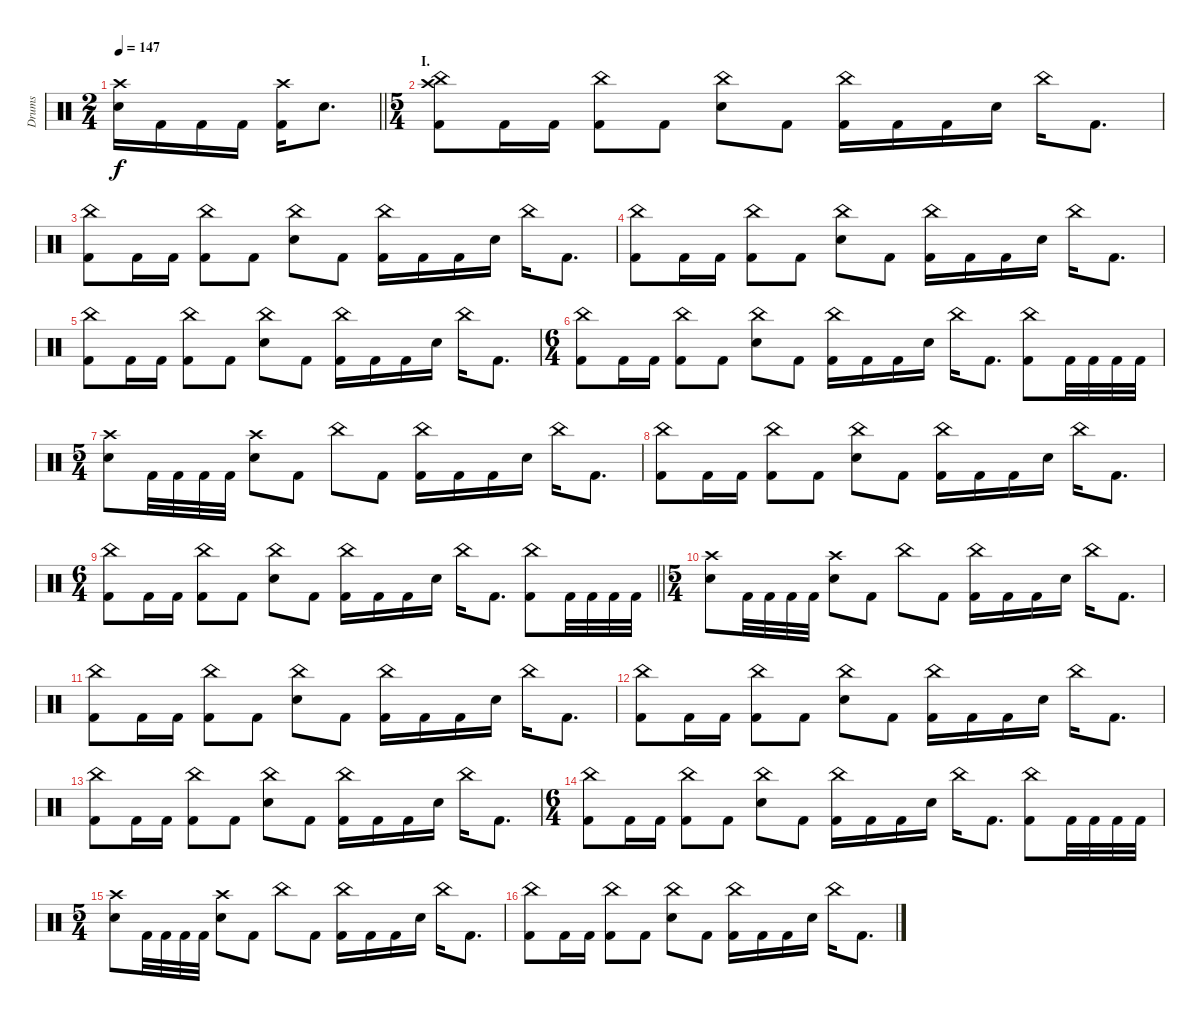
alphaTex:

\track ("Drums" "Drums") {instrument percussion}
\staff {score}
\articulation defaults
\ts (2 4)
\tempo 147
\clef neutral
\barLineRight lightlight
\ks c
("Crash high (hit)" "Electric Snare (hit)").16{dy f} "Kick (hit) 2".16 "Kick (hit) 2".16 "Kick (hit) 2".16 ("Crash high (hit)" "Kick (hit) 2").16 "Electric Snare (hit)".8{d} |
\ts (5 4)
\section ("" "I.")
("China (hit)" "Crash high (hit)" "Kick (hit) 2").8 "Kick (hit) 2".16 "Kick (hit) 2".16 ("China (hit)" "Kick (hit) 2").8 "Kick (hit) 2".8 ("China (hit)" "Electric Snare (hit)").8 "Kick (hit) 2".8 ("China (hit)" "Kick (hit) 2").16 "Kick (hit) 2".16 "Kick (hit) 2".16 "Electric Snare (hit)".16 "China (hit)".16 "Kick (hit) 2".8{d} |
("China (hit)" "Kick (hit) 2").8 "Kick (hit) 2".16 "Kick (hit) 2".16 ("China (hit)" "Kick (hit) 2").8 "Kick (hit) 2".8 ("China (hit)" "Electric Snare (hit)").8 "Kick (hit) 2".8 ("China (hit)" "Kick (hit) 2").16 "Kick (hit) 2".16 "Kick (hit) 2".16 "Electric Snare (hit)".16 "China (hit)".16 "Kick (hit) 2".8{d} |
("China (hit)" "Kick (hit) 2").8 "Kick (hit) 2".16 "Kick (hit) 2".16 ("China (hit)" "Kick (hit) 2").8 "Kick (hit) 2".8 ("China (hit)" "Electric Snare (hit)").8 "Kick (hit) 2".8 ("China (hit)" "Kick (hit) 2").16 "Kick (hit) 2".16 "Kick (hit) 2".16 "Electric Snare (hit)".16 "China (hit)".16 "Kick (hit) 2".8{d} |
("China (hit)" "Kick (hit) 2").8 "Kick (hit) 2".16 "Kick (hit) 2".16 ("China (hit)" "Kick (hit) 2").8 "Kick (hit) 2".8 ("China (hit)" "Electric Snare (hit)").8 "Kick (hit) 2".8 ("China (hit)" "Kick (hit) 2").16 "Kick (hit) 2".16 "Kick (hit) 2".16 "Electric Snare (hit)".16 "China (hit)".16 "Kick (hit) 2".8{d} |
\ts (6 4)
("China (hit)" "Kick (hit) 2").8 "Kick (hit) 2".16 "Kick (hit) 2".16 ("China (hit)" "Kick (hit) 2").8 "Kick (hit) 2".8 ("China (hit)" "Electric Snare (hit)").8 "Kick (hit) 2".8 ("China (hit)" "Kick (hit) 2").16 "Kick (hit) 2".16 "Kick (hit) 2".16 "Electric Snare (hit)".16 "China (hit)".16 "Kick (hit) 2".8{d} ("China (hit)" "Kick (hit) 2").8 "Kick (hit) 2".32 "Kick (hit) 2".32 "Kick (hit) 2".32 "Kick (hit) 2".32 |
\ts (5 4)
("Crash high (hit)" "Electric Snare (hit)").8 "Kick (hit) 2".32 "Kick (hit) 2".32 "Kick (hit) 2".32 "Kick (hit) 2".32 ("Crash high (hit)" "Electric Snare (hit)").8 "Kick (hit) 2".8 "China (hit)".8 "Kick (hit) 2".8 ("China (hit)" "Kick (hit) 2").16 "Kick (hit) 2".16 "Kick (hit) 2".16 "Electric Snare (hit)".16 "China (hit)".16 "Kick (hit) 2".8{d} |
("China (hit)" "Kick (hit) 2").8 "Kick (hit) 2".16 "Kick (hit) 2".16 ("China (hit)" "Kick (hit) 2").8 "Kick (hit) 2".8 ("China (hit)" "Electric Snare (hit)").8 "Kick (hit) 2".8 ("China (hit)" "Kick (hit) 2").16 "Kick (hit) 2".16 "Kick (hit) 2".16 "Electric Snare (hit)".16 "China (hit)".16 "Kick (hit) 2".8{d} |
\ts (6 4)
\barLineRight lightlight
("China (hit)" "Kick (hit) 2").8 "Kick (hit) 2".16 "Kick (hit) 2".16 ("China (hit)" "Kick (hit) 2").8 "Kick (hit) 2".8 ("China (hit)" "Electric Snare (hit)").8 "Kick (hit) 2".8 ("China (hit)" "Kick (hit) 2").16 "Kick (hit) 2".16 "Kick (hit) 2".16 "Electric Snare (hit)".16 "China (hit)".16 "Kick (hit) 2".8{d} ("China (hit)" "Kick (hit) 2").8 "Kick (hit) 2".32 "Kick (hit) 2".32 "Kick (hit) 2".32 "Kick (hit) 2".32 |
\ts (5 4)
("Crash high (hit)" "Electric Snare (hit)").8 "Kick (hit) 2".32 "Kick (hit) 2".32 "Kick (hit) 2".32 "Kick (hit) 2".32 ("Crash high (hit)" "Electric Snare (hit)").8 "Kick (hit) 2".8 "China (hit)".8 "Kick (hit) 2".8 ("China (hit)" "Kick (hit) 2").16 "Kick (hit) 2".16 "Kick (hit) 2".16 "Electric Snare (hit)".16 "China (hit)".16 "Kick (hit) 2".8{d} |
("China (hit)" "Kick (hit) 2").8 "Kick (hit) 2".16 "Kick (hit) 2".16 ("China (hit)" "Kick (hit) 2").8 "Kick (hit) 2".8 ("China (hit)" "Electric Snare (hit)").8 "Kick (hit) 2".8 ("China (hit)" "Kick (hit) 2").16 "Kick (hit) 2".16 "Kick (hit) 2".16 "Electric Snare (hit)".16 "China (hit)".16 "Kick (hit) 2".8{d} |
("China (hit)" "Kick (hit) 2").8 "Kick (hit) 2".16 "Kick (hit) 2".16 ("China (hit)" "Kick (hit) 2").8 "Kick (hit) 2".8 ("China (hit)" "Electric Snare (hit)").8 "Kick (hit) 2".8 ("China (hit)" "Kick (hit) 2").16 "Kick (hit) 2".16 "Kick (hit) 2".16 "Electric Snare (hit)".16 "China (hit)".16 "Kick (hit) 2".8{d} |
("China (hit)" "Kick (hit) 2").8 "Kick (hit) 2".16 "Kick (hit) 2".16 ("China (hit)" "Kick (hit) 2").8 "Kick (hit) 2".8 ("China (hit)" "Electric Snare (hit)").8 "Kick (hit) 2".8 ("China (hit)" "Kick (hit) 2").16 "Kick (hit) 2".16 "Kick (hit) 2".16 "Electric Snare (hit)".16 "China (hit)".16 "Kick (hit) 2".8{d} |
\ts (6 4)
("China (hit)" "Kick (hit) 2").8 "Kick (hit) 2".16 "Kick (hit) 2".16 ("China (hit)" "Kick (hit) 2").8 "Kick (hit) 2".8 ("China (hit)" "Electric Snare (hit)").8 "Kick (hit) 2".8 ("China (hit)" "Kick (hit) 2").16 "Kick (hit) 2".16 "Kick (hit) 2".16 "Electric Snare (hit)".16 "China (hit)".16 "Kick (hit) 2".8{d} ("China (hit)" "Kick (hit) 2").8 "Kick (hit) 2".32 "Kick (hit) 2".32 "Kick (hit) 2".32 "Kick (hit) 2".32 |
\ts (5 4)
("Crash high (hit)" "Electric Snare (hit)").8 "Kick (hit) 2".32 "Kick (hit) 2".32 "Kick (hit) 2".32 "Kick (hit) 2".32 ("Crash high (hit)" "Electric Snare (hit)").8 "Kick (hit) 2".8 "China (hit)".8 "Kick (hit) 2".8 ("China (hit)" "Kick (hit) 2").16 "Kick (hit) 2".16 "Kick (hit) 2".16 "Electric Snare (hit)".16 "China (hit)".16 "Kick (hit) 2".8{d} |
("China (hit)" "Kick (hit) 2").8 "Kick (hit) 2".16 "Kick (hit) 2".16 ("China (hit)" "Kick (hit) 2").8 "Kick (hit) 2".8 ("China (hit)" "Electric Snare (hit)").8 "Kick (hit) 2".8 ("China (hit)" "Kick (hit) 2").16 "Kick (hit) 2".16 "Kick (hit) 2".16 "Electric Snare (hit)".16 "China (hit)".16 "Kick (hit) 2".8{d}
